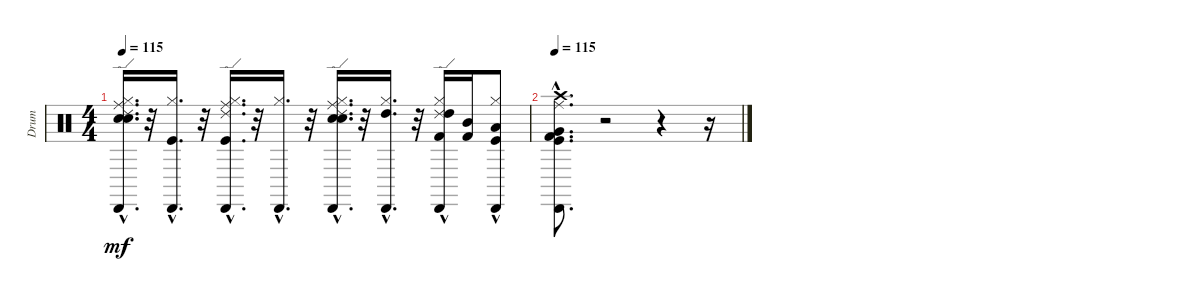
\track ("Drum" "Drum") {instrument percussion}
\staff {score}
\articulation defaults
\ts (4 4)
\tempo 115
\clef neutral
\ks c
("Electric Snare (hit)"{hac} "Snare (hit) 2"{hac} "Ride (middle)"{hac} "Cabasa (hit)"{hac} "Hi-Hat (closed)"{hac} "Ride (edge) 2"{hac}).16{d dy mf} r.32 ("Kick (hit)"{hac} "Hi-Hat (closed)"{hac} "Cabasa (hit)"{hac}).16{d} r.32 ("Kick (hit)"{hac} "Hi-Hat (closed)"{hac} "Cabasa (hit)"{hac} "Ride (edge) 2"{hac} "Ride (middle)"{hac}).16{d} r.32 ("Hi-Hat (closed)"{hac} "Cabasa (hit)"{hac}).16{d} r.32 ("Electric Snare (hit)"{hac} "Snare (hit) 2"{hac} "Cabasa (hit)"{hac} "Ride (middle)"{hac} "Hi-Hat (closed)"{hac} "Ride (edge) 2"{hac}).16{d} r.32 ("High Tom (hit)"{hac} "Hi-Hat (closed)"{hac} "Cabasa (hit)"{hac}).16{d} r.32 ("Kick (hit) 2" "Cabasa (hit)" "Ride (edge) 2"{hac} "Hi-Hat (closed)" "High Tom (hit)").16 ("Kick (hit) 2" "Mid Tom (hit)").16 ("Kick (hit)"{hac} "Cabasa (hit)"{hac} "Hi-Hat (closed)" "Low Tom (hit)"{hac}).8 |
\tempo 115
("Kick (hit) 2"{hac} "Kick (hit)"{hac} "Crash high (hit)"{hac} "Very Low Tom (hit)"{hac} "Ride (middle)"{hac} "Cabasa (hit)"{hac}).8{d} r.2 r.4 r.16
